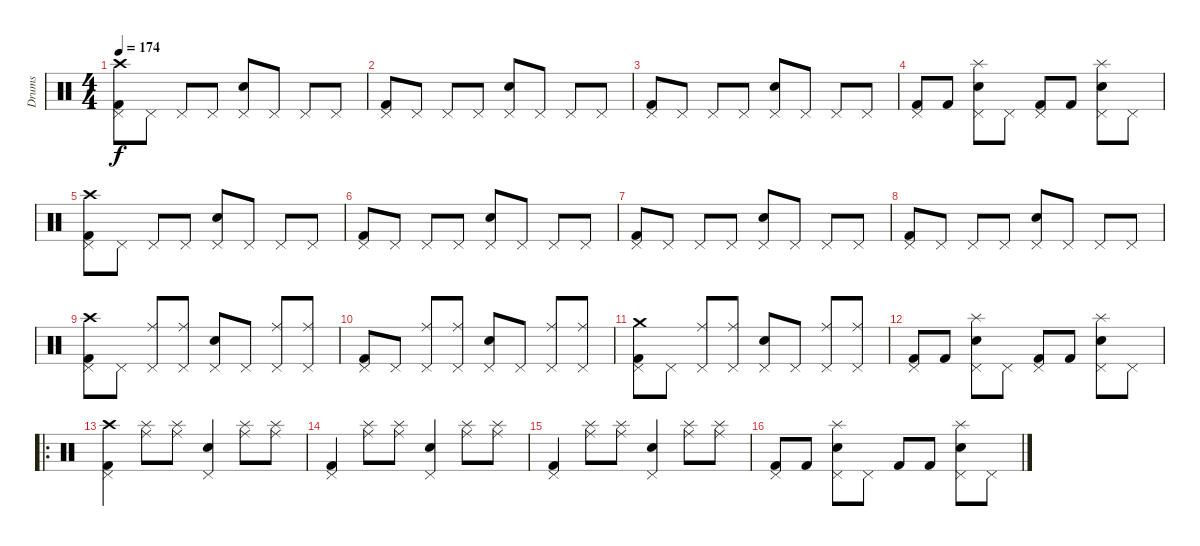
\track ("Drums" "Drums") {instrument percussion}
\staff {score}
\articulation defaults
\ts (4 4)
\tempo 174
\clef neutral
\ks c
("Kick (hit) 2" "Pedal Hi-Hat (hit)" "Crash high (hit)").8{dy f} "Pedal Hi-Hat (hit)".8 "Pedal Hi-Hat (hit)".8 "Pedal Hi-Hat (hit)".8 ("Snare (hit) 2" "Pedal Hi-Hat (hit)").8 "Pedal Hi-Hat (hit)".8 "Pedal Hi-Hat (hit)".8 "Pedal Hi-Hat (hit)".8 |
("Kick (hit) 2" "Pedal Hi-Hat (hit)").8 "Pedal Hi-Hat (hit)".8 "Pedal Hi-Hat (hit)".8 "Pedal Hi-Hat (hit)".8 ("Snare (hit) 2" "Pedal Hi-Hat (hit)").8 "Pedal Hi-Hat (hit)".8 "Pedal Hi-Hat (hit)".8 "Pedal Hi-Hat (hit)".8 |
("Kick (hit) 2" "Pedal Hi-Hat (hit)").8 "Pedal Hi-Hat (hit)".8 "Pedal Hi-Hat (hit)".8 "Pedal Hi-Hat (hit)".8 ("Snare (hit) 2" "Pedal Hi-Hat (hit)").8 "Pedal Hi-Hat (hit)".8 "Pedal Hi-Hat (hit)".8 "Pedal Hi-Hat (hit)".8 |
("Kick (hit) 2" "Pedal Hi-Hat (hit)").8 "Kick (hit) 2".8 ("Snare (hit) 2" "Pedal Hi-Hat (hit)" "Splash (hit)").8 "Pedal Hi-Hat (hit)".8 ("Kick (hit) 2" "Pedal Hi-Hat (hit)").8 "Kick (hit) 2".8 ("Snare (hit) 2" "Pedal Hi-Hat (hit)" "Splash (hit)").8 "Pedal Hi-Hat (hit)".8 |
("Kick (hit) 2" "Pedal Hi-Hat (hit)" "Crash high (hit)").8 "Pedal Hi-Hat (hit)".8 "Pedal Hi-Hat (hit)".8 "Pedal Hi-Hat (hit)".8 ("Snare (hit) 2" "Pedal Hi-Hat (hit)").8 "Pedal Hi-Hat (hit)".8 "Pedal Hi-Hat (hit)".8 "Pedal Hi-Hat (hit)".8 |
("Kick (hit) 2" "Pedal Hi-Hat (hit)").8 "Pedal Hi-Hat (hit)".8 "Pedal Hi-Hat (hit)".8 "Pedal Hi-Hat (hit)".8 ("Snare (hit) 2" "Pedal Hi-Hat (hit)").8 "Pedal Hi-Hat (hit)".8 "Pedal Hi-Hat (hit)".8 "Pedal Hi-Hat (hit)".8 |
("Kick (hit) 2" "Pedal Hi-Hat (hit)").8 "Pedal Hi-Hat (hit)".8 "Pedal Hi-Hat (hit)".8 "Pedal Hi-Hat (hit)".8 ("Snare (hit) 2" "Pedal Hi-Hat (hit)").8 "Pedal Hi-Hat (hit)".8 "Pedal Hi-Hat (hit)".8 "Pedal Hi-Hat (hit)".8 |
("Kick (hit) 2" "Pedal Hi-Hat (hit)").8 "Pedal Hi-Hat (hit)".8 "Pedal Hi-Hat (hit)".8 "Pedal Hi-Hat (hit)".8 ("Snare (hit) 2" "Pedal Hi-Hat (hit)").8 "Pedal Hi-Hat (hit)".8 "Pedal Hi-Hat (hit)".8 "Pedal Hi-Hat (hit)".8 |
("Kick (hit) 2" "Pedal Hi-Hat (hit)" "Crash high (hit)").8 "Pedal Hi-Hat (hit)".8 ("Pedal Hi-Hat (hit)" "Ride (middle)").8 ("Pedal Hi-Hat (hit)" "Ride (middle)").8 ("Snare (hit) 2" "Pedal Hi-Hat (hit)").8 "Pedal Hi-Hat (hit)".8 ("Pedal Hi-Hat (hit)" "Ride (middle)").8 ("Pedal Hi-Hat (hit)" "Ride (middle)").8 |
("Kick (hit) 2" "Pedal Hi-Hat (hit)").8 "Pedal Hi-Hat (hit)".8 ("Pedal Hi-Hat (hit)" "Ride (middle)").8 ("Pedal Hi-Hat (hit)" "Ride (middle)").8 ("Snare (hit) 2" "Pedal Hi-Hat (hit)").8 "Pedal Hi-Hat (hit)".8 ("Pedal Hi-Hat (hit)" "Ride (middle)").8 ("Pedal Hi-Hat (hit)" "Ride (middle)").8 |
("Kick (hit) 2" "Pedal Hi-Hat (hit)" "Crash medium (hit)").8 "Pedal Hi-Hat (hit)".8 ("Pedal Hi-Hat (hit)" "Ride (middle)").8 ("Pedal Hi-Hat (hit)" "Ride (middle)").8 ("Snare (hit) 2" "Pedal Hi-Hat (hit)").8 "Pedal Hi-Hat (hit)".8 ("Pedal Hi-Hat (hit)" "Ride (middle)").8 ("Pedal Hi-Hat (hit)" "Ride (middle)").8 |
("Kick (hit) 2" "Pedal Hi-Hat (hit)").8 "Kick (hit) 2".8 ("Snare (hit) 2" "Pedal Hi-Hat (hit)" "Splash (hit)").8 "Pedal Hi-Hat (hit)".8 ("Kick (hit) 2" "Pedal Hi-Hat (hit)").8 "Kick (hit) 2".8 ("Snare (hit) 2" "Pedal Hi-Hat (hit)" "Splash (hit)").8 "Pedal Hi-Hat (hit)".8 |
\ro
("Kick (hit) 2" "Pedal Hi-Hat (hit)" "Crash high (hit)").4 ("Splash (hit)" "Ride (middle)").8 ("Splash (hit)" "Ride (middle)").8 ("Snare (hit) 2" "Pedal Hi-Hat (hit)").4 ("Splash (hit)" "Ride (middle)").8 ("Splash (hit)" "Ride (middle)").8 |
("Kick (hit) 2" "Pedal Hi-Hat (hit)").4 ("Splash (hit)" "Ride (middle)").8 ("Splash (hit)" "Ride (middle)").8 ("Snare (hit) 2" "Pedal Hi-Hat (hit)").4 ("Splash (hit)" "Ride (middle)").8 ("Splash (hit)" "Ride (middle)").8 |
("Kick (hit) 2" "Pedal Hi-Hat (hit)").4 ("Splash (hit)" "Ride (middle)").8 ("Splash (hit)" "Ride (middle)").8 ("Snare (hit) 2" "Pedal Hi-Hat (hit)").4 ("Splash (hit)" "Ride (middle)").8 ("Splash (hit)" "Ride (middle)").8 |
("Kick (hit) 2" "Pedal Hi-Hat (hit)").8 "Kick (hit) 2".8 ("Snare (hit) 2" "Pedal Hi-Hat (hit)" "Splash (hit)").8 "Pedal Hi-Hat (hit)".8 "Kick (hit) 2".8 "Kick (hit) 2".8 ("Snare (hit) 2" "Pedal Hi-Hat (hit)" "Splash (hit)").8 "Pedal Hi-Hat (hit)".8
